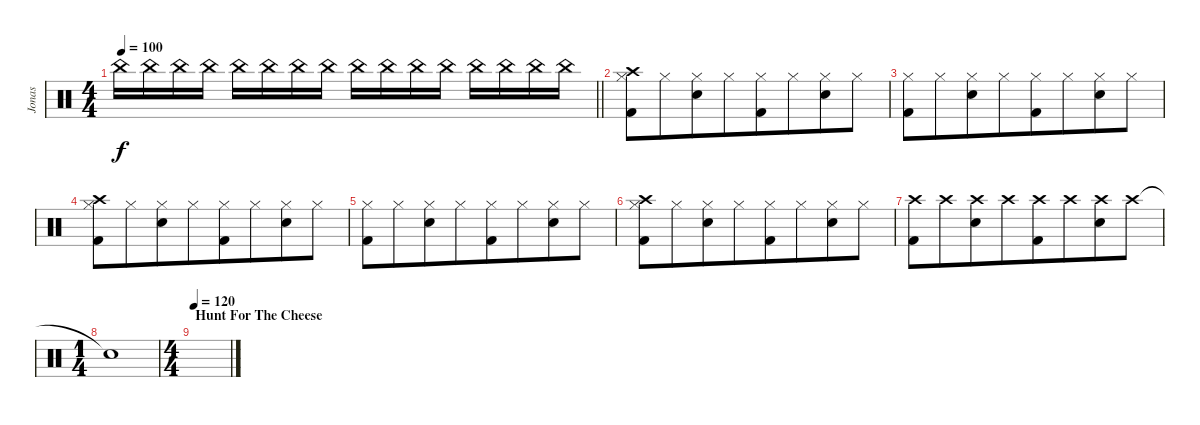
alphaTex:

\track ("Jonas" "Jonas") {instrument percussion}
\staff {score}
\articulation defaults
\ts (4 4)
\tempo 100
\clef neutral
\barLineRight lightlight
\ks c "China (hit)".16{dy f} "China (hit)".16 "China (hit)".16 "China (hit)".16 "China (hit)".16 "China (hit)".16 "China (hit)".16 "China (hit)".16 "China (hit)".16 "China (hit)".16 "China (hit)".16 "China (hit)".16 "China (hit)".16 "China (hit)".16 "China (hit)".16 "China (hit)".16
|
("Crash high (hit)" "Hi-Hat (closed)" "Kick (hit) 2").8{beam merge} "Hi-Hat (closed)".8{beam merge} ("Hi-Hat (closed)" "Snare (hit) 2").8{beam merge} "Hi-Hat (closed)".8{beam merge} ("Hi-Hat (closed)" "Kick (hit) 2").8{beam merge} "Hi-Hat (closed)".8{beam merge} ("Hi-Hat (closed)" "Snare (hit) 2").8{beam merge} "Hi-Hat (closed)".8 |
("Hi-Hat (closed)" "Kick (hit) 2").8{beam merge} "Hi-Hat (closed)".8{beam merge} ("Hi-Hat (closed)" "Snare (hit) 2").8{beam merge} "Hi-Hat (closed)".8{beam merge} ("Hi-Hat (closed)" "Kick (hit) 2").8{beam merge} "Hi-Hat (closed)".8{beam merge} ("Hi-Hat (closed)" "Snare (hit) 2").8{beam merge} "Hi-Hat (closed)".8 |
("Crash high (hit)" "Hi-Hat (closed)" "Kick (hit) 2").8{beam merge} "Hi-Hat (closed)".8{beam merge} ("Hi-Hat (closed)" "Snare (hit) 2").8{beam merge} "Hi-Hat (closed)".8{beam merge} ("Hi-Hat (closed)" "Kick (hit) 2").8{beam merge} "Hi-Hat (closed)".8{beam merge} ("Hi-Hat (closed)" "Snare (hit) 2").8{beam merge} "Hi-Hat (closed)".8 |
("Hi-Hat (closed)" "Kick (hit) 2").8{beam merge} "Hi-Hat (closed)".8{beam merge} ("Hi-Hat (closed)" "Snare (hit) 2").8{beam merge} "Hi-Hat (closed)".8{beam merge} ("Hi-Hat (closed)" "Kick (hit) 2").8{beam merge} "Hi-Hat (closed)".8{beam merge} ("Hi-Hat (closed)" "Snare (hit) 2").8{beam merge} "Hi-Hat (closed)".8 |
("Crash high (hit)" "Hi-Hat (closed)" "Kick (hit) 2").8{beam merge} "Hi-Hat (closed)".8{beam merge} ("Hi-Hat (closed)" "Snare (hit) 2").8{beam merge} "Hi-Hat (closed)".8{beam merge} ("Hi-Hat (closed)" "Kick (hit) 2").8{beam merge} "Hi-Hat (closed)".8{beam merge} ("Hi-Hat (closed)" "Snare (hit) 2").8{beam merge} "Hi-Hat (closed)".8 |
("Crash high (hit)" "Kick (hit) 2").8{beam merge} "Crash high (hit)".8{beam merge} ("Crash high (hit)" "Snare (hit) 2").8{beam merge} "Crash high (hit)".8{beam merge} ("Crash high (hit)" "Kick (hit) 2").8{beam merge} "Crash high (hit)".8{beam merge} ("Crash high (hit)" "Snare (hit) 2").8{beam merge} "Crash high (hit)".8 |
\ts (1 4)
"Snare (hit)"{t}.1 |
\ts (4 4)
\section ("" "Hunt For The Cheese")
\tempo 120
